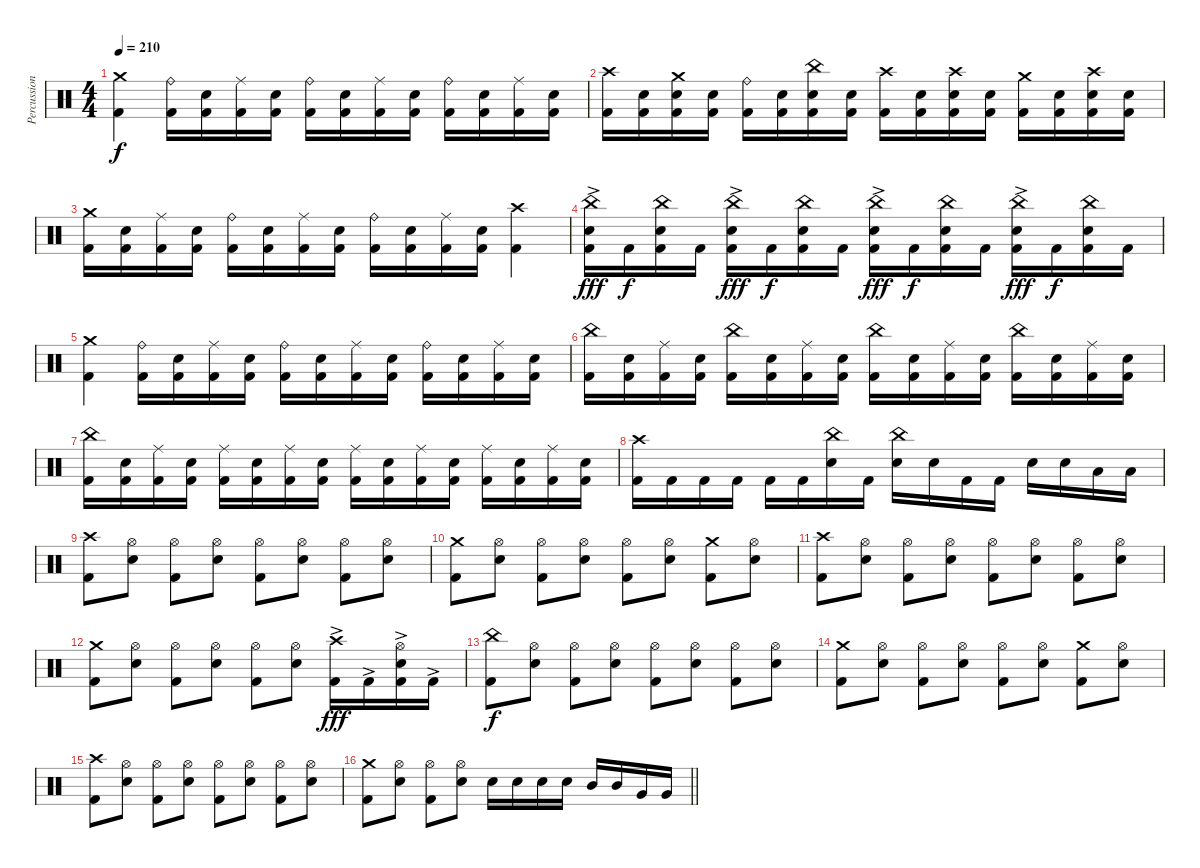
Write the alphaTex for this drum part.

\track ("Percussion" "Percussion") {instrument percussion}
\staff {score}
\articulation defaults
\ts (4 4)
\tempo 210
\clef neutral
\ks c
("Crash medium (hit)" "Kick (hit) 2").4{dy f} ("Ride (bell)" "Kick (hit) 2").16 ("Snare (hit) 2" "Kick (hit) 2").16 ("Ride (middle)" "Kick (hit) 2").16 ("Snare (hit) 2" "Kick (hit) 2").16 ("Ride (bell)" "Kick (hit) 2").16 ("Snare (hit) 2" "Kick (hit) 2").16 ("Ride (middle)" "Kick (hit) 2").16 ("Snare (hit) 2" "Kick (hit) 2").16 ("Ride (bell)" "Kick (hit) 2").16 ("Snare (hit) 2" "Kick (hit) 2").16 ("Ride (middle)" "Kick (hit) 2").16 ("Snare (hit) 2" "Kick (hit) 2").16 |
("Crash high (hit)" "Kick (hit) 2").16 ("Snare (hit) 2" "Kick (hit) 2").16 ("Crash medium (hit)" "Snare (hit) 2" "Kick (hit) 2").16 ("Snare (hit) 2" "Kick (hit) 2").16 ("Ride (bell)" "Kick (hit) 2").16 ("Snare (hit) 2" "Kick (hit) 2").16 ("China (hit)" "Snare (hit) 2" "Kick (hit) 2").16 ("Snare (hit) 2" "Kick (hit) 2").16 ("Crash high (hit)" "Kick (hit) 2").16 ("Snare (hit) 2" "Kick (hit) 2").16 ("Crash high (hit)" "Snare (hit) 2" "Kick (hit) 2").16 ("Snare (hit) 2" "Kick (hit) 2").16 ("Crash medium (hit)" "Kick (hit) 2").16 ("Snare (hit) 2" "Kick (hit) 2").16 ("Crash high (hit)" "Snare (hit) 2" "Kick (hit) 2").16 ("Snare (hit) 2" "Kick (hit) 2").16 |
("Crash medium (hit)" "Kick (hit) 2").16 ("Snare (hit) 2" "Kick (hit) 2").16 ("Ride (middle)" "Kick (hit) 2").16 ("Snare (hit) 2" "Kick (hit) 2").16 ("Ride (bell)" "Kick (hit) 2").16 ("Snare (hit) 2" "Kick (hit) 2").16 ("Ride (middle)" "Kick (hit) 2").16 ("Snare (hit) 2" "Kick (hit) 2").16 ("Ride (bell)" "Kick (hit) 2").16 ("Snare (hit) 2" "Kick (hit) 2").16 ("Ride (middle)" "Kick (hit) 2").16 ("Snare (hit) 2" "Kick (hit) 2").16 ("Crash high (hit)" "Kick (hit) 2").4 |
("China (hit)"{ac} "Snare (hit) 2" "Kick (hit) 2").16{dy fff} "Kick (hit) 2".16{dy f} ("China (hit)" "Snare (hit) 2" "Kick (hit) 2").16 "Kick (hit) 2".16 ("China (hit)"{ac} "Snare (hit) 2" "Kick (hit) 2").16{dy fff} "Kick (hit) 2".16{dy f} ("China (hit)" "Snare (hit) 2" "Kick (hit) 2").16 "Kick (hit) 2".16 ("China (hit)"{ac} "Snare (hit) 2" "Kick (hit) 2").16{dy fff} "Kick (hit) 2".16{dy f} ("China (hit)" "Snare (hit) 2" "Kick (hit) 2").16 "Kick (hit) 2".16 ("China (hit)"{ac} "Snare (hit) 2" "Kick (hit) 2").16{dy fff} "Kick (hit) 2".16{dy f} ("China (hit)" "Snare (hit) 2" "Kick (hit) 2").16 "Kick (hit) 2".16 |
("Crash medium (hit)" "Kick (hit) 2").4 ("Ride (bell)" "Kick (hit) 2").16 ("Snare (hit) 2" "Kick (hit) 2").16 ("Ride (middle)" "Kick (hit) 2").16 ("Snare (hit) 2" "Kick (hit) 2").16 ("Ride (bell)" "Kick (hit) 2").16 ("Snare (hit) 2" "Kick (hit) 2").16 ("Ride (middle)" "Kick (hit) 2").16 ("Snare (hit) 2" "Kick (hit) 2").16 ("Ride (bell)" "Kick (hit) 2").16 ("Snare (hit) 2" "Kick (hit) 2").16 ("Ride (middle)" "Kick (hit) 2").16 ("Snare (hit) 2" "Kick (hit) 2").16 |
("China (hit)" "Kick (hit) 2").16 ("Snare (hit) 2" "Kick (hit) 2").16 ("Ride (middle)" "Kick (hit) 2").16 ("Snare (hit) 2" "Kick (hit) 2").16 ("China (hit)" "Kick (hit) 2").16 ("Snare (hit) 2" "Kick (hit) 2").16 ("Ride (middle)" "Kick (hit) 2").16 ("Snare (hit) 2" "Kick (hit) 2").16 ("China (hit)" "Kick (hit) 2").16 ("Snare (hit) 2" "Kick (hit) 2").16 ("Ride (middle)" "Kick (hit) 2").16 ("Snare (hit) 2" "Kick (hit) 2").16 ("China (hit)" "Kick (hit) 2").16 ("Snare (hit) 2" "Kick (hit) 2").16 ("Ride (middle)" "Kick (hit) 2").16 ("Snare (hit) 2" "Kick (hit) 2").16 |
("China (hit)" "Kick (hit) 2").16 ("Snare (hit) 2" "Kick (hit) 2").16 ("Ride (middle)" "Kick (hit) 2").16 ("Snare (hit) 2" "Kick (hit) 2").16 ("Ride (middle)" "Kick (hit) 2").16 ("Snare (hit) 2" "Kick (hit) 2").16 ("Ride (middle)" "Kick (hit) 2").16 ("Snare (hit) 2" "Kick (hit) 2").16 ("Ride (middle)" "Kick (hit) 2").16 ("Snare (hit) 2" "Kick (hit) 2").16 ("Ride (middle)" "Kick (hit) 2").16 ("Snare (hit) 2" "Kick (hit) 2").16 ("Ride (middle)" "Kick (hit) 2").16 ("Snare (hit) 2" "Kick (hit) 2").16 ("Ride (middle)" "Kick (hit) 2").16 ("Snare (hit) 2" "Kick (hit) 2").16 |
("Crash high (hit)" "Kick (hit) 2").16 "Kick (hit) 2".16 "Kick (hit) 2".16 "Kick (hit) 2".16 "Kick (hit) 2".16 "Kick (hit) 2".16 ("China (hit)" "Snare (hit) 2").16 "Kick (hit) 2".16 ("China (hit)" "Snare (hit) 2").16 "Snare (hit) 2".16 "Kick (hit) 2".16 "Kick (hit) 2".16 "Snare (hit) 2".16 "Snare (hit) 2".16 "Low Tom (hit)".16 "Low Tom (hit)".16 |
("Crash high (hit)" "Kick (hit) 2").8 ("Hi-Hat (open)" "Snare (hit) 2").8 ("Hi-Hat (open)" "Kick (hit) 2").8 ("Hi-Hat (open)" "Snare (hit) 2").8 ("Hi-Hat (open)" "Kick (hit) 2").8 ("Hi-Hat (open)" "Snare (hit) 2").8 ("Hi-Hat (open)" "Kick (hit) 2").8 ("Hi-Hat (open)" "Snare (hit) 2").8 |
("Crash medium (hit)" "Kick (hit) 2").8 ("Hi-Hat (open)" "Snare (hit) 2").8 ("Hi-Hat (open)" "Kick (hit) 2").8 ("Hi-Hat (open)" "Snare (hit) 2").8 ("Hi-Hat (open)" "Kick (hit) 2").8 ("Hi-Hat (open)" "Snare (hit) 2").8 ("Crash medium (hit)" "Kick (hit) 2").8 ("Hi-Hat (open)" "Snare (hit) 2").8 |
("Crash high (hit)" "Kick (hit) 2").8 ("Hi-Hat (open)" "Snare (hit) 2").8 ("Hi-Hat (open)" "Kick (hit) 2").8 ("Hi-Hat (open)" "Snare (hit) 2").8 ("Hi-Hat (open)" "Kick (hit) 2").8 ("Hi-Hat (open)" "Snare (hit) 2").8 ("Hi-Hat (open)" "Kick (hit) 2").8 ("Hi-Hat (open)" "Snare (hit) 2").8 |
("Crash medium (hit)" "Kick (hit) 2").8 ("Hi-Hat (open)" "Snare (hit) 2").8 ("Hi-Hat (open)" "Kick (hit) 2").8 ("Hi-Hat (open)" "Snare (hit) 2").8 ("Hi-Hat (open)" "Kick (hit) 2").8 ("Hi-Hat (open)" "Snare (hit) 2").8 ("Crash high (hit)" "Kick (hit) 2"{ac}).16{dy fff} "Kick (hit) 2"{ac}.16 ("Hi-Hat (open)" "Snare (hit) 2" "Kick (hit) 2"{ac}).16 "Kick (hit) 2"{ac}.16 |
("China (hit)" "Kick (hit) 2").8{dy f} ("Hi-Hat (open)" "Snare (hit) 2").8 ("Hi-Hat (open)" "Kick (hit) 2").8 ("Hi-Hat (open)" "Snare (hit) 2").8 ("Hi-Hat (open)" "Kick (hit) 2").8 ("Hi-Hat (open)" "Snare (hit) 2").8 ("Hi-Hat (open)" "Kick (hit) 2").8 ("Hi-Hat (open)" "Snare (hit) 2").8 |
("Crash medium (hit)" "Kick (hit) 2").8 ("Hi-Hat (open)" "Snare (hit) 2").8 ("Hi-Hat (open)" "Kick (hit) 2").8 ("Hi-Hat (open)" "Snare (hit) 2").8 ("Hi-Hat (open)" "Kick (hit) 2").8 ("Hi-Hat (open)" "Snare (hit) 2").8 ("Crash medium (hit)" "Kick (hit) 2").8 ("Hi-Hat (open)" "Snare (hit) 2").8 |
("Crash high (hit)" "Kick (hit) 2").8 ("Hi-Hat (open)" "Snare (hit) 2").8 ("Hi-Hat (open)" "Kick (hit) 2").8 ("Hi-Hat (open)" "Snare (hit) 2").8 ("Hi-Hat (open)" "Kick (hit) 2").8 ("Hi-Hat (open)" "Snare (hit) 2").8 ("Hi-Hat (open)" "Kick (hit) 2").8 ("Hi-Hat (open)" "Snare (hit) 2").8 |
\barLineRight lightlight
("Crash medium (hit)" "Kick (hit) 2").8 ("Hi-Hat (open)" "Snare (hit) 2").8 ("Hi-Hat (open)" "Kick (hit) 2").8 ("Hi-Hat (open)" "Snare (hit) 2").8 "Snare (hit) 2".16 "Snare (hit) 2".16 "Snare (hit) 2".16 "Snare (hit) 2".16 "Mid Tom (hit)".16 "Mid Tom (hit)".16 "Very Low Tom (hit)".16 "Very Low Tom (hit)".16
